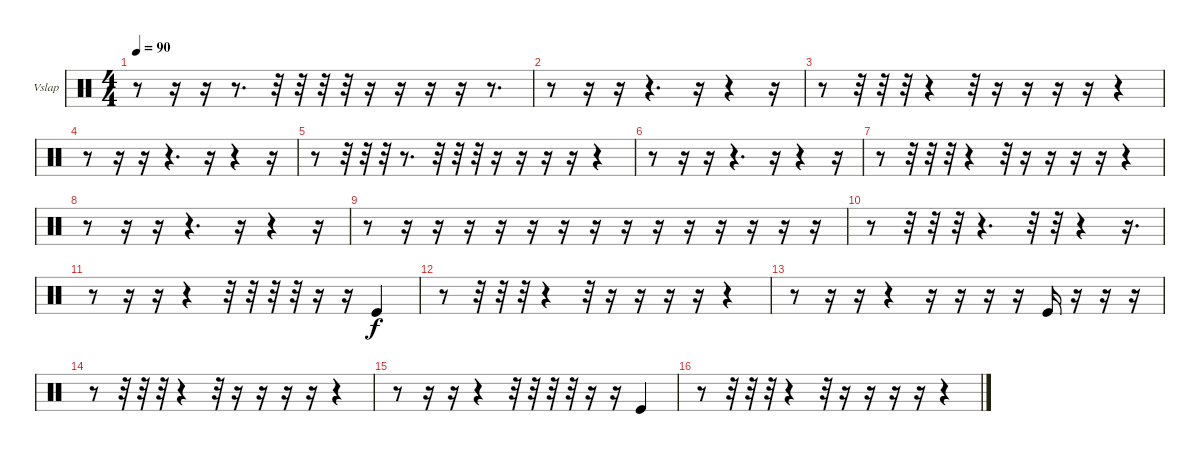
\defaultSystemsLayout 4
\bracketExtendMode groupsimilarinstruments
\firstSystemTrackNameOrientation horizontal
\otherSystemsTrackNameOrientation horizontal
\track ("Vibraslap" "Vslap") {instrument percussion}
\staff {score}
\articulation defaults
\ts (4 4)
\tempo 90
\clef neutral
\scale
0.333333
\ks c
r.8{dy f} r.16 r.16 r.8{d} r.32 r.32 r.32 r.32 r.16 r.16 r.16 r.16 r.8{d} |
\scale
0.333333 r.8 r.16 r.16 r.4{d} r.16 r.4 r.16 |
\scale
0.333333 r.8 r.32 r.32 r.32 r.4 r.32 r.16 r.16 r.16 r.16 r.4 |
\scale
0.333333 r.8 r.16 r.16 r.4{d} r.16 r.4 r.16 |
\scale
0.333333 r.8 r.32 r.32 r.32 r.8{d} r.32 r.32 r.32 r.16 r.16 r.16 r.16 r.4 |
\scale
0.333333 r.8 r.16 r.16 r.4{d} r.16 r.4 r.16 |
\scale
0.333333 r.8 r.32 r.32 r.32 r.4 r.32 r.16 r.16 r.16 r.16 r.4 |
\scale
0.333333 r.8 r.16 r.16 r.4{d} r.16 r.4 r.16 |
\scale
0.333333 r.8 r.16 r.16 r.16 r.16 r.16 r.16 r.16 r.16 r.16 r.16 r.16 r.16 r.16 r.16 |
\scale
0.333333 r.8 r.32 r.32 r.32 r.4{d} r.32 r.32 r.4 r.16{d} |
\scale
0.333333 r.8 r.16 r.16 r.4 r.32 r.32 r.32 r.32 r.16 r.16 "Kick (hit)".4 |
\scale
0.333333 r.8 r.32 r.32 r.32 r.4 r.32 r.16 r.16 r.16 r.16 r.4 |
\scale
0.333333 r.8 r.16 r.16 r.4 r.16 r.16 r.16 r.16 "Kick (hit)".16 r.16 r.16 r.16 |
\scale
0.333333 r.8 r.32 r.32 r.32 r.4 r.32 r.16 r.16 r.16 r.16 r.4 |
\scale
0.333333 r.8 r.16 r.16 r.4 r.32 r.32 r.32 r.32 r.16 r.16 "Kick (hit)".4 |
\scale
0.333333 r.8 r.32 r.32 r.32 r.4 r.32 r.16 r.16 r.16 r.16 r.4
